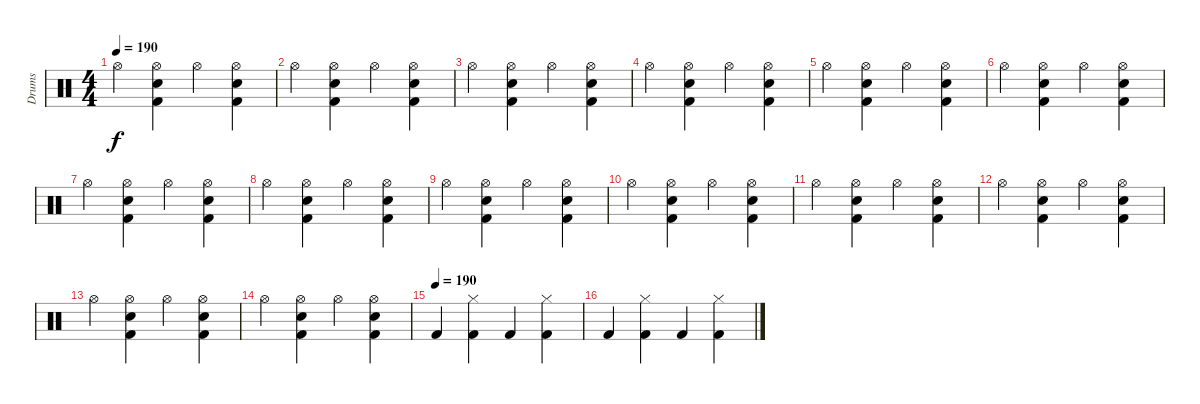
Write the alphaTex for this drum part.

\track ("Drums" "Drums") {instrument percussion}
\staff {score}
\articulation defaults
\ts (4 4)
\tempo 190
\clef neutral
\ks c "Hi-Hat (open)".4{dy f}
("Hi-Hat (open)" "Snare (hit) 2" "Kick (hit) 2").4 "Hi-Hat (open)".4 ("Hi-Hat (open)" "Snare (hit) 2" "Kick (hit) 2").4 |
"Hi-Hat (open)".4 ("Hi-Hat (open)" "Snare (hit) 2" "Kick (hit) 2").4 "Hi-Hat (open)".4 ("Hi-Hat (open)" "Snare (hit) 2" "Kick (hit) 2").4 |
"Hi-Hat (open)".4 ("Hi-Hat (open)" "Snare (hit) 2" "Kick (hit) 2").4 "Hi-Hat (open)".4 ("Hi-Hat (open)" "Snare (hit) 2" "Kick (hit) 2").4 |
"Hi-Hat (open)".4 ("Hi-Hat (open)" "Snare (hit) 2" "Kick (hit) 2").4 "Hi-Hat (open)".4 ("Hi-Hat (open)" "Snare (hit) 2" "Kick (hit) 2").4 |
"Hi-Hat (open)".4 ("Hi-Hat (open)" "Snare (hit) 2" "Kick (hit) 2").4 "Hi-Hat (open)".4 ("Hi-Hat (open)" "Snare (hit) 2" "Kick (hit) 2").4 |
"Hi-Hat (open)".4 ("Hi-Hat (open)" "Snare (hit) 2" "Kick (hit) 2").4 "Hi-Hat (open)".4 ("Hi-Hat (open)" "Snare (hit) 2" "Kick (hit) 2").4 |
"Hi-Hat (open)".4 ("Hi-Hat (open)" "Snare (hit) 2" "Kick (hit) 2").4 "Hi-Hat (open)".4 ("Hi-Hat (open)" "Snare (hit) 2" "Kick (hit) 2").4 |
"Hi-Hat (open)".4 ("Hi-Hat (open)" "Snare (hit) 2" "Kick (hit) 2").4 "Hi-Hat (open)".4 ("Hi-Hat (open)" "Snare (hit) 2" "Kick (hit) 2").4 |
"Hi-Hat (open)".4 ("Hi-Hat (open)" "Snare (hit) 2" "Kick (hit) 2").4 "Hi-Hat (open)".4 ("Hi-Hat (open)" "Snare (hit) 2" "Kick (hit) 2").4 |
"Hi-Hat (open)".4 ("Hi-Hat (open)" "Snare (hit) 2" "Kick (hit) 2").4 "Hi-Hat (open)".4 ("Hi-Hat (open)" "Snare (hit) 2" "Kick (hit) 2").4 |
"Hi-Hat (open)".4 ("Hi-Hat (open)" "Snare (hit) 2" "Kick (hit) 2").4 "Hi-Hat (open)".4 ("Hi-Hat (open)" "Snare (hit) 2" "Kick (hit) 2").4 |
"Hi-Hat (open)".4 ("Hi-Hat (open)" "Snare (hit) 2" "Kick (hit) 2").4 "Hi-Hat (open)".4 ("Hi-Hat (open)" "Snare (hit) 2" "Kick (hit) 2").4 |
"Hi-Hat (open)".4 ("Hi-Hat (open)" "Snare (hit) 2" "Kick (hit) 2").4 "Hi-Hat (open)".4 ("Hi-Hat (open)" "Snare (hit) 2" "Kick (hit) 2").4 |
"Hi-Hat (open)".4 ("Hi-Hat (open)" "Snare (hit) 2" "Kick (hit) 2").4 "Hi-Hat (open)".4 ("Hi-Hat (open)" "Snare (hit) 2" "Kick (hit) 2").4 |
\tempo (190)
"Kick (hit) 2".4 ("Hi-Hat (closed)" "Kick (hit) 2").4 "Kick (hit) 2".4 ("Hi-Hat (closed)" "Kick (hit) 2").4 |
"Kick (hit) 2".4 ("Hi-Hat (closed)" "Kick (hit) 2").4 "Kick (hit) 2".4 ("Hi-Hat (closed)" "Kick (hit) 2").4
